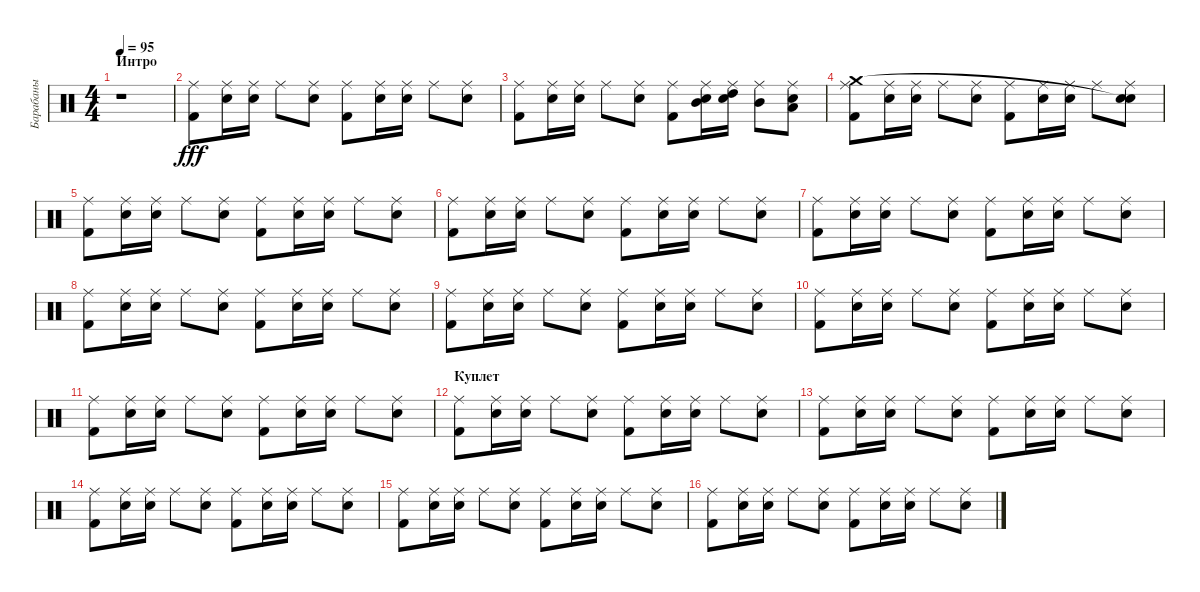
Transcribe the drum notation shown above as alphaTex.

\track ("Барабаны" "Барабаны") {instrument percussion}
\staff {score}
\articulation defaults
\ts (4 4)
\section ("" "Интро")
\tempo 95
\clef neutral
\ks c
r.1{dy fff} |
("Kick (hit) 2" "Ride (middle)").8 ("Snare (hit) 2" "Ride (middle)").16 ("Snare (hit) 2" "Ride (middle)").16 "Ride (middle)".8 ("Snare (hit) 2" "Ride (middle)").8 ("Kick (hit) 2" "Ride (middle)").8 ("Snare (hit) 2" "Ride (middle)").16 ("Snare (hit) 2" "Ride (middle)").16 "Ride (middle)".8 ("Snare (hit) 2" "Ride (middle)").8 |
("Kick (hit) 2" "Ride (middle)").8 ("Snare (hit) 2" "Ride (middle)").16 ("Snare (hit) 2" "Ride (middle)").16 "Ride (middle)".8 ("Snare (hit) 2" "Ride (middle)").8 ("Kick (hit) 2" "Ride (middle)").8 ("Snare (hit) 2" "Ride (middle)" "Mid Tom (hit)").16 ("Snare (hit) 2" "Ride (middle)" "High Tom (hit)").16 ("Ride (middle)" "Mid Tom (hit)").8 ("Snare (hit) 2" "Ride (middle)" "Low Tom (hit)").8 |
("Kick (hit) 2" "Ride (middle)" "Crash medium (hit)").8 ("Snare (hit) 2" "Ride (middle)").16 ("Snare (hit) 2" "Ride (middle)").16 "Ride (middle)".8 ("Snare (hit) 2" "Ride (middle)").8 ("Kick (hit) 2" "Ride (middle)").8 ("Snare (hit) 2" "Ride (middle)").16 ("Snare (hit) 2" "Ride (middle)").16 "Ride (middle)".8 ("Snare (hit) 2" "Ride (middle)" "Snare (hit)"{t}).8 |
("Kick (hit) 2" "Ride (middle)").8 ("Snare (hit) 2" "Ride (middle)").16 ("Snare (hit) 2" "Ride (middle)").16 "Ride (middle)".8 ("Snare (hit) 2" "Ride (middle)").8 ("Kick (hit) 2" "Ride (middle)").8 ("Snare (hit) 2" "Ride (middle)").16 ("Snare (hit) 2" "Ride (middle)").16 "Ride (middle)".8 ("Snare (hit) 2" "Ride (middle)").8 |
("Kick (hit) 2" "Ride (middle)").8 ("Snare (hit) 2" "Ride (middle)").16 ("Snare (hit) 2" "Ride (middle)").16 "Ride (middle)".8 ("Snare (hit) 2" "Ride (middle)").8 ("Kick (hit) 2" "Ride (middle)").8 ("Snare (hit) 2" "Ride (middle)").16 ("Snare (hit) 2" "Ride (middle)").16 "Ride (middle)".8 ("Snare (hit) 2" "Ride (middle)").8 |
("Kick (hit) 2" "Ride (middle)").8 ("Snare (hit) 2" "Ride (middle)").16 ("Snare (hit) 2" "Ride (middle)").16 "Ride (middle)".8 ("Snare (hit) 2" "Ride (middle)").8 ("Kick (hit) 2" "Ride (middle)").8 ("Snare (hit) 2" "Ride (middle)").16 ("Snare (hit) 2" "Ride (middle)").16 "Ride (middle)".8 ("Snare (hit) 2" "Ride (middle)").8 |
("Kick (hit) 2" "Ride (middle)").8 ("Snare (hit) 2" "Ride (middle)").16 ("Snare (hit) 2" "Ride (middle)").16 "Ride (middle)".8 ("Snare (hit) 2" "Ride (middle)").8 ("Kick (hit) 2" "Ride (middle)").8 ("Snare (hit) 2" "Ride (middle)").16 ("Snare (hit) 2" "Ride (middle)").16 "Ride (middle)".8 ("Snare (hit) 2" "Ride (middle)").8 |
("Kick (hit) 2" "Ride (middle)").8 ("Snare (hit) 2" "Ride (middle)").16 ("Snare (hit) 2" "Ride (middle)").16 "Ride (middle)".8 ("Snare (hit) 2" "Ride (middle)").8 ("Kick (hit) 2" "Ride (middle)").8 ("Snare (hit) 2" "Ride (middle)").16 ("Snare (hit) 2" "Ride (middle)").16 "Ride (middle)".8 ("Snare (hit) 2" "Ride (middle)").8 |
("Kick (hit) 2" "Ride (middle)").8 ("Snare (hit) 2" "Ride (middle)").16 ("Snare (hit) 2" "Ride (middle)").16 "Ride (middle)".8 ("Snare (hit) 2" "Ride (middle)").8 ("Kick (hit) 2" "Ride (middle)").8 ("Snare (hit) 2" "Ride (middle)").16 ("Snare (hit) 2" "Ride (middle)").16 "Ride (middle)".8 ("Snare (hit) 2" "Ride (middle)").8 |
("Kick (hit) 2" "Ride (middle)").8 ("Snare (hit) 2" "Ride (middle)").16 ("Snare (hit) 2" "Ride (middle)").16 "Ride (middle)".8 ("Snare (hit) 2" "Ride (middle)").8 ("Kick (hit) 2" "Ride (middle)").8 ("Snare (hit) 2" "Ride (middle)").16 ("Snare (hit) 2" "Ride (middle)").16 "Ride (middle)".8 ("Snare (hit) 2" "Ride (middle)").8 |
\section ("" "Куплет")
("Kick (hit) 2" "Ride (middle)").8 ("Snare (hit) 2" "Ride (middle)").16 ("Snare (hit) 2" "Ride (middle)").16 "Ride (middle)".8 ("Snare (hit) 2" "Ride (middle)").8 ("Kick (hit) 2" "Ride (middle)").8 ("Snare (hit) 2" "Ride (middle)").16 ("Snare (hit) 2" "Ride (middle)").16 "Ride (middle)".8 ("Snare (hit) 2" "Ride (middle)").8 |
("Kick (hit) 2" "Ride (middle)").8 ("Snare (hit) 2" "Ride (middle)").16 ("Snare (hit) 2" "Ride (middle)").16 "Ride (middle)".8 ("Snare (hit) 2" "Ride (middle)").8 ("Kick (hit) 2" "Ride (middle)").8 ("Snare (hit) 2" "Ride (middle)").16 ("Snare (hit) 2" "Ride (middle)").16 "Ride (middle)".8 ("Snare (hit) 2" "Ride (middle)").8 |
("Kick (hit) 2" "Ride (middle)").8 ("Snare (hit) 2" "Ride (middle)").16 ("Snare (hit) 2" "Ride (middle)").16 "Ride (middle)".8 ("Snare (hit) 2" "Ride (middle)").8 ("Kick (hit) 2" "Ride (middle)").8 ("Snare (hit) 2" "Ride (middle)").16 ("Snare (hit) 2" "Ride (middle)").16 "Ride (middle)".8 ("Snare (hit) 2" "Ride (middle)").8 |
("Kick (hit) 2" "Ride (middle)").8 ("Snare (hit) 2" "Ride (middle)").16 ("Snare (hit) 2" "Ride (middle)").16 "Ride (middle)".8 ("Snare (hit) 2" "Ride (middle)").8 ("Kick (hit) 2" "Ride (middle)").8 ("Snare (hit) 2" "Ride (middle)").16 ("Snare (hit) 2" "Ride (middle)").16 "Ride (middle)".8 ("Snare (hit) 2" "Ride (middle)").8 |
("Kick (hit) 2" "Ride (middle)").8 ("Snare (hit) 2" "Ride (middle)").16 ("Snare (hit) 2" "Ride (middle)").16 "Ride (middle)".8 ("Snare (hit) 2" "Ride (middle)").8 ("Kick (hit) 2" "Ride (middle)").8 ("Snare (hit) 2" "Ride (middle)").16 ("Snare (hit) 2" "Ride (middle)").16 "Ride (middle)".8 ("Snare (hit) 2" "Ride (middle)").8
